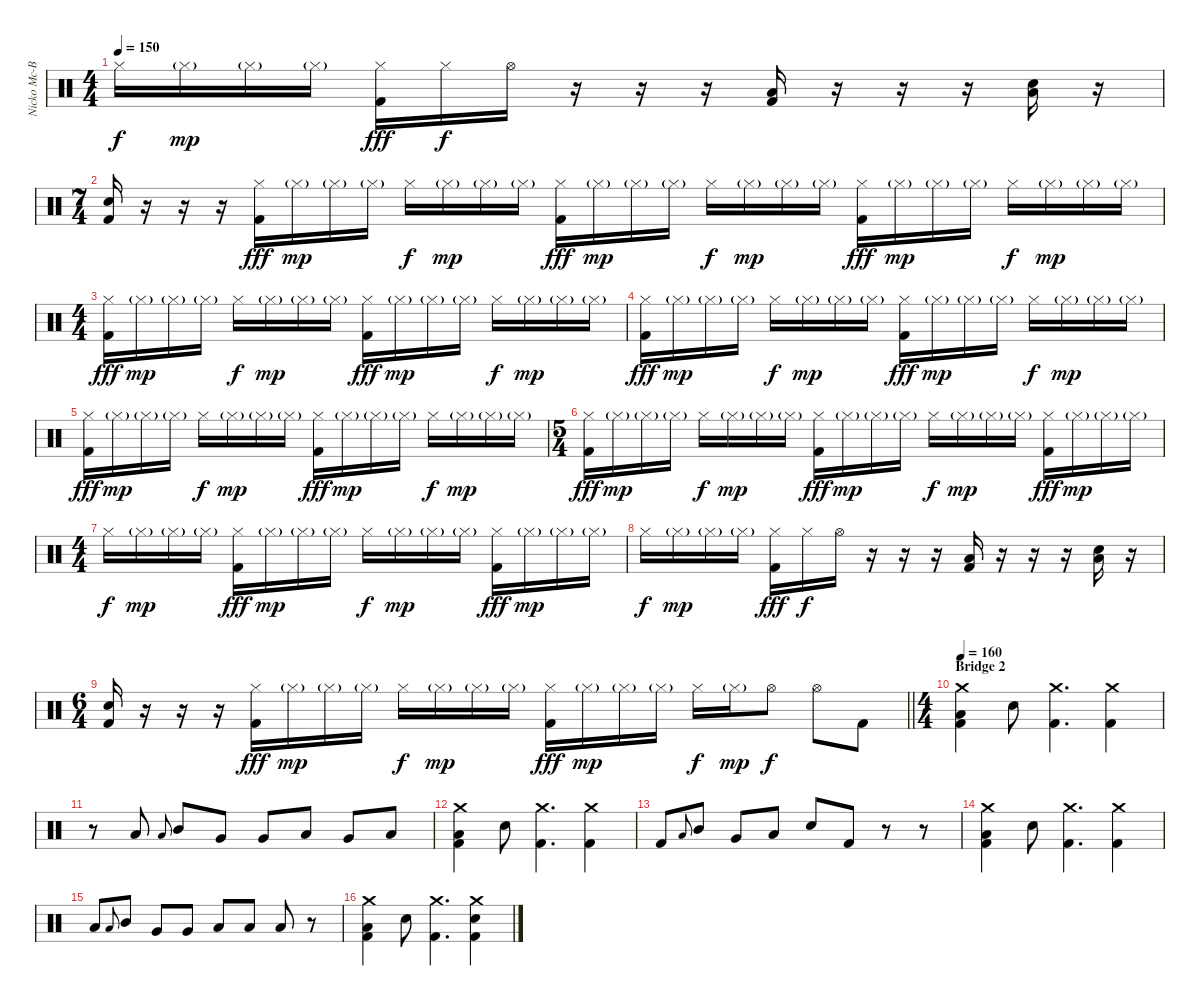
\track ("Nicko Mc-Brain" "Nicko Mc-B") {instrument percussion}
\staff {score}
\articulation defaults
\ts (4 4)
\tempo 150
\clef neutral
\ks c "Hi-Hat (closed)".16{dy f} "Hi-Hat (closed)"{g}.16{dy mp} "Hi-Hat (closed)"{g}.16 "Hi-Hat (closed)"{g}.16
("Hi-Hat (closed)" "Kick (hit) 2").16{dy fff} "Hi-Hat (closed)".16{dy f} "Hi-Hat (open)".16 r.16 r.16 r.16 ("Low Floor Tom (hit)" "Kick (hit) 2").16 r.16 r.16 r.16 ("Low Floor Tom (hit)" "Snare (hit) 2").16 r.16 |
\ts (7 4)
("Snare (hit) 2" "Kick (hit) 2").16 r.16 r.16 r.16 ("Hi-Hat (closed)" "Kick (hit) 2").16{dy fff} "Hi-Hat (closed)"{g}.16{dy mp} "Hi-Hat (closed)"{g}.16 "Hi-Hat (closed)"{g}.16 "Hi-Hat (closed)".16{dy f} "Hi-Hat (closed)"{g}.16{dy mp} "Hi-Hat (closed)"{g}.16 "Hi-Hat (closed)"{g}.16 ("Hi-Hat (closed)" "Kick (hit) 2").16{dy fff} "Hi-Hat (closed)"{g}.16{dy mp} "Hi-Hat (closed)"{g}.16 "Hi-Hat (closed)"{g}.16 "Hi-Hat (closed)".16{dy f} "Hi-Hat (closed)"{g}.16{dy mp} "Hi-Hat (closed)"{g}.16 "Hi-Hat (closed)"{g}.16 ("Hi-Hat (closed)" "Kick (hit) 2").16{dy fff} "Hi-Hat (closed)"{g}.16{dy mp} "Hi-Hat (closed)"{g}.16 "Hi-Hat (closed)"{g}.16 "Hi-Hat (closed)".16{dy f} "Hi-Hat (closed)"{g}.16{dy mp} "Hi-Hat (closed)"{g}.16 "Hi-Hat (closed)"{g}.16 |
\ts (4 4)
("Hi-Hat (closed)" "Kick (hit) 2").16{dy fff} "Hi-Hat (closed)"{g}.16{dy mp} "Hi-Hat (closed)"{g}.16 "Hi-Hat (closed)"{g}.16 "Hi-Hat (closed)".16{dy f} "Hi-Hat (closed)"{g}.16{dy mp} "Hi-Hat (closed)"{g}.16 "Hi-Hat (closed)"{g}.16 ("Hi-Hat (closed)" "Kick (hit) 2").16{dy fff} "Hi-Hat (closed)"{g}.16{dy mp} "Hi-Hat (closed)"{g}.16 "Hi-Hat (closed)"{g}.16 "Hi-Hat (closed)".16{dy f} "Hi-Hat (closed)"{g}.16{dy mp} "Hi-Hat (closed)"{g}.16 "Hi-Hat (closed)"{g}.16 |
("Hi-Hat (closed)" "Kick (hit) 2").16{dy fff} "Hi-Hat (closed)"{g}.16{dy mp} "Hi-Hat (closed)"{g}.16 "Hi-Hat (closed)"{g}.16 "Hi-Hat (closed)".16{dy f} "Hi-Hat (closed)"{g}.16{dy mp} "Hi-Hat (closed)"{g}.16 "Hi-Hat (closed)"{g}.16 ("Hi-Hat (closed)" "Kick (hit) 2").16{dy fff} "Hi-Hat (closed)"{g}.16{dy mp} "Hi-Hat (closed)"{g}.16 "Hi-Hat (closed)"{g}.16 "Hi-Hat (closed)".16{dy f} "Hi-Hat (closed)"{g}.16{dy mp} "Hi-Hat (closed)"{g}.16 "Hi-Hat (closed)"{g}.16 |
("Hi-Hat (closed)" "Kick (hit) 2").16{dy fff} "Hi-Hat (closed)"{g}.16{dy mp} "Hi-Hat (closed)"{g}.16 "Hi-Hat (closed)"{g}.16 "Hi-Hat (closed)".16{dy f} "Hi-Hat (closed)"{g}.16{dy mp} "Hi-Hat (closed)"{g}.16 "Hi-Hat (closed)"{g}.16 ("Hi-Hat (closed)" "Kick (hit) 2").16{dy fff} "Hi-Hat (closed)"{g}.16{dy mp} "Hi-Hat (closed)"{g}.16 "Hi-Hat (closed)"{g}.16 "Hi-Hat (closed)".16{dy f} "Hi-Hat (closed)"{g}.16{dy mp} "Hi-Hat (closed)"{g}.16 "Hi-Hat (closed)"{g}.16 |
\ts (5 4)
("Hi-Hat (closed)" "Kick (hit) 2").16{dy fff} "Hi-Hat (closed)"{g}.16{dy mp} "Hi-Hat (closed)"{g}.16 "Hi-Hat (closed)"{g}.16 "Hi-Hat (closed)".16{dy f} "Hi-Hat (closed)"{g}.16{dy mp} "Hi-Hat (closed)"{g}.16 "Hi-Hat (closed)"{g}.16 ("Hi-Hat (closed)" "Kick (hit) 2").16{dy fff} "Hi-Hat (closed)"{g}.16{dy mp} "Hi-Hat (closed)"{g}.16 "Hi-Hat (closed)"{g}.16 "Hi-Hat (closed)".16{dy f} "Hi-Hat (closed)"{g}.16{dy mp} "Hi-Hat (closed)"{g}.16 "Hi-Hat (closed)"{g}.16 ("Hi-Hat (closed)" "Kick (hit) 2").16{dy fff} "Hi-Hat (closed)"{g}.16{dy mp} "Hi-Hat (closed)"{g}.16 "Hi-Hat (closed)"{g}.16 |
\ts (4 4)
"Hi-Hat (closed)".16{dy f} "Hi-Hat (closed)"{g}.16{dy mp} "Hi-Hat (closed)"{g}.16 "Hi-Hat (closed)"{g}.16 ("Hi-Hat (closed)" "Kick (hit) 2").16{dy fff} "Hi-Hat (closed)"{g}.16{dy mp} "Hi-Hat (closed)"{g}.16 "Hi-Hat (closed)"{g}.16 "Hi-Hat (closed)".16{dy f} "Hi-Hat (closed)"{g}.16{dy mp} "Hi-Hat (closed)"{g}.16 "Hi-Hat (closed)"{g}.16 ("Hi-Hat (closed)" "Kick (hit) 2").16{dy fff} "Hi-Hat (closed)"{g}.16{dy mp} "Hi-Hat (closed)"{g}.16 "Hi-Hat (closed)"{g}.16 |
"Hi-Hat (closed)".16{dy f} "Hi-Hat (closed)"{g}.16{dy mp} "Hi-Hat (closed)"{g}.16 "Hi-Hat (closed)"{g}.16 ("Hi-Hat (closed)" "Kick (hit) 2").16{dy fff} "Hi-Hat (closed)".16{dy f} "Hi-Hat (open)".16 r.16 r.16 r.16 ("Low Floor Tom (hit)" "Kick (hit) 2").16 r.16 r.16 r.16 ("Low Floor Tom (hit)" "Snare (hit) 2").16 r.16 |
\ts (6 4)
\barLineRight lightlight
("Snare (hit) 2" "Kick (hit) 2").16 r.16 r.16 r.16 ("Hi-Hat (closed)" "Kick (hit) 2").16{dy fff} "Hi-Hat (closed)"{g}.16{dy mp} "Hi-Hat (closed)"{g}.16 "Hi-Hat (closed)"{g}.16 "Hi-Hat (closed)".16{dy f} "Hi-Hat (closed)"{g}.16{dy mp} "Hi-Hat (closed)"{g}.16 "Hi-Hat (closed)"{g}.16 ("Hi-Hat (closed)" "Kick (hit) 2").16{dy fff} "Hi-Hat (closed)"{g}.16{dy mp} "Hi-Hat (closed)"{g}.16 "Hi-Hat (closed)"{g}.16 "Hi-Hat (closed)".16{dy f} "Hi-Hat (closed)"{g}.16{dy mp} "Hi-Hat (open)".8{dy f} "Hi-Hat (open)".8 "Kick (hit) 2".8 |
\ts (4 4)
\section ("" "Bridge 2")
\tempo 160
("Crash medium (hit)" "Low Floor Tom (hit)" "Kick (hit) 2").4 "Snare (hit) 2".8 ("Crash medium (hit)" "Kick (hit) 2").4{d} ("Crash medium (hit)" "Kick (hit) 2").4 |
r.8 "Low Floor Tom (hit)".8 "Low Tom (hit)".8{gr onbeat} "Mid Tom (hit)".8 "Very Low Tom (hit)".8 "Very Low Tom (hit)".8 "Low Tom (hit)".8 "Very Low Tom (hit)".8 "Low Floor Tom (hit)".8 |
("Crash medium (hit)" "Low Floor Tom (hit)" "Kick (hit) 2").4 "Snare (hit) 2".8 ("Crash medium (hit)" "Kick (hit) 2").4{d} ("Crash medium (hit)" "Kick (hit) 2").4 |
"Kick (hit) 2".8 "Low Tom (hit)".8{gr onbeat} "Mid Tom (hit)".8 "Very Low Tom (hit)".8 "Low Tom (hit)".8 "Snare (hit) 2".8 "Kick (hit) 2".8 r.8 r.8 |
("Crash medium (hit)" "Low Floor Tom (hit)" "Kick (hit) 2").4 "Snare (hit) 2".8 ("Crash medium (hit)" "Kick (hit) 2").4{d} ("Crash medium (hit)" "Kick (hit) 2").4 |
"Low Floor Tom (hit)".8 "Low Tom (hit)".8{gr onbeat} "Mid Tom (hit)".8 "Very Low Tom (hit)".8 "Very Low Tom (hit)".8 "Low Tom (hit)".8 "Low Floor Tom (hit)".8 "Low Floor Tom (hit)".8 r.8 |
("Crash medium (hit)" "Low Floor Tom (hit)" "Kick (hit) 2").4 "Snare (hit) 2".8 ("Crash medium (hit)" "Kick (hit) 2").4{d} ("Crash medium (hit)" "Snare (hit) 2" "Kick (hit) 2").4
